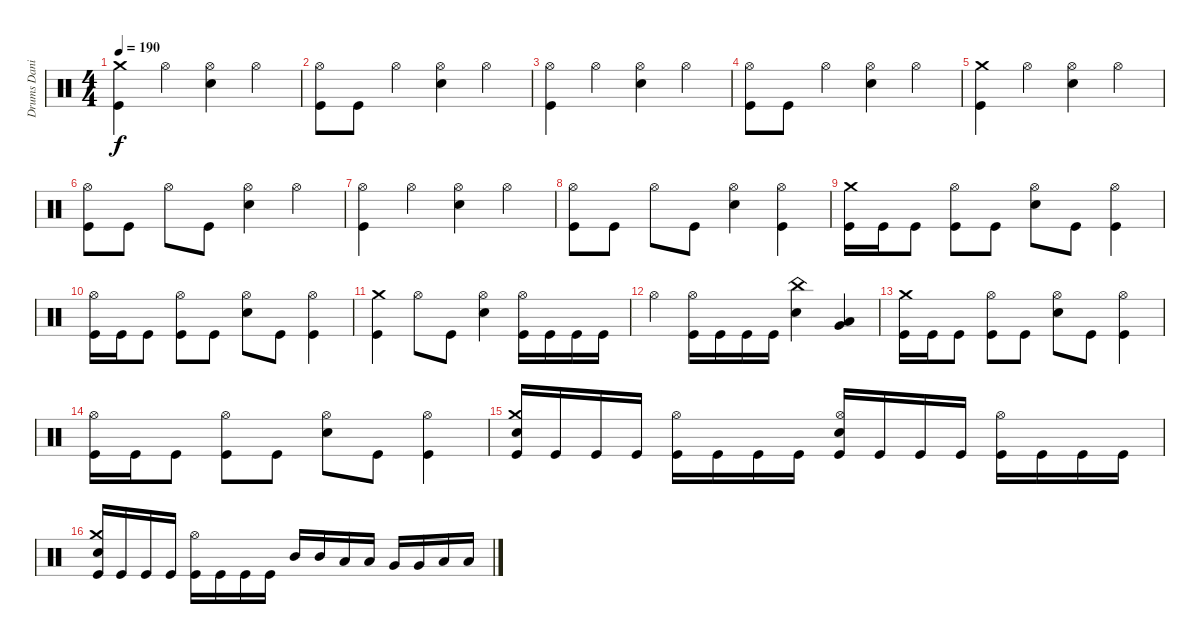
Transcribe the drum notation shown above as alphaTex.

\track ("Drums Daniel" "Drums Dani") {instrument percussion}
\staff {score}
\articulation defaults
\ts (4 4)
\tempo 190
\clef neutral
\ks c
("Kick (hit)" "Crash medium (hit)").4{dy f} "Hi-Hat (open)".4 ("Electric Snare (hit)" "Hi-Hat (open)").4 "Hi-Hat (open)".4 |
("Kick (hit)" "Hi-Hat (open)").8 "Kick (hit)".8 "Hi-Hat (open)".4 ("Electric Snare (hit)" "Hi-Hat (open)").4 "Hi-Hat (open)".4 |
("Kick (hit)" "Hi-Hat (open)").4 "Hi-Hat (open)".4 ("Electric Snare (hit)" "Hi-Hat (open)").4 "Hi-Hat (open)".4 |
("Kick (hit)" "Hi-Hat (open)").8 "Kick (hit)".8 "Hi-Hat (open)".4 ("Electric Snare (hit)" "Hi-Hat (open)").4 "Hi-Hat (open)".4 |
("Kick (hit)" "Crash medium (hit)").4 "Hi-Hat (open)".4 ("Electric Snare (hit)" "Hi-Hat (open)").4 "Hi-Hat (open)".4 |
("Kick (hit)" "Hi-Hat (open)").8 "Kick (hit)".8 "Hi-Hat (open)".8 "Kick (hit)".8 ("Electric Snare (hit)" "Hi-Hat (open)").4 "Hi-Hat (open)".4 |
("Kick (hit)" "Hi-Hat (open)").4 "Hi-Hat (open)".4 ("Electric Snare (hit)" "Hi-Hat (open)").4 "Hi-Hat (open)".4 |
("Kick (hit)" "Hi-Hat (open)").8 "Kick (hit)".8 "Hi-Hat (open)".8 "Kick (hit)".8 ("Electric Snare (hit)" "Hi-Hat (open)").4 ("Kick (hit)" "Hi-Hat (open)").4 |
("Kick (hit)" "Crash medium (hit)").16 "Kick (hit)".16 "Kick (hit)".8 ("Kick (hit)" "Hi-Hat (open)").8 "Kick (hit)".8 ("Electric Snare (hit)" "Hi-Hat (open)").8 "Kick (hit)".8 ("Kick (hit)" "Hi-Hat (open)").4 |
("Kick (hit)" "Hi-Hat (open)").16 "Kick (hit)".16 "Kick (hit)".8 ("Kick (hit)" "Hi-Hat (open)").8 "Kick (hit)".8 ("Electric Snare (hit)" "Hi-Hat (open)").8 "Kick (hit)".8 ("Kick (hit)" "Hi-Hat (open)").4 |
("Kick (hit)" "Crash medium (hit)").4 "Hi-Hat (open)".8 "Kick (hit)".8 ("Electric Snare (hit)" "Hi-Hat (open)").4 ("Kick (hit)" "Hi-Hat (open)").16 "Kick (hit)".16 "Kick (hit)".16 "Kick (hit)".16 |
"Hi-Hat (open)".4 ("Kick (hit)" "Hi-Hat (open)").16 "Kick (hit)".16 "Kick (hit)".16 "Kick (hit)".16 ("Electric Snare (hit)" "China (hit)").4 ("Very Low Tom (hit)" "Low Floor Tom (hit)").4 |
("Kick (hit)" "Crash medium (hit)").16 "Kick (hit)".16 "Kick (hit)".8 ("Kick (hit)" "Hi-Hat (open)").8 "Kick (hit)".8 ("Electric Snare (hit)" "Hi-Hat (open)").8 "Kick (hit)".8 ("Kick (hit)" "Hi-Hat (open)").4 |
("Kick (hit)" "Hi-Hat (open)").16 "Kick (hit)".16 "Kick (hit)".8 ("Kick (hit)" "Hi-Hat (open)").8 "Kick (hit)".8 ("Electric Snare (hit)" "Hi-Hat (open)").8 "Kick (hit)".8 ("Kick (hit)" "Hi-Hat (open)").4 |
("Kick (hit)" "Electric Snare (hit)" "Crash medium (hit)").16 "Kick (hit)".16 "Kick (hit)".16 "Kick (hit)".16 ("Kick (hit)" "Hi-Hat (open)").16 "Kick (hit)".16 "Kick (hit)".16 "Kick (hit)".16 ("Kick (hit)" "Electric Snare (hit)" "Hi-Hat (open)").16 "Kick (hit)".16 "Kick (hit)".16 "Kick (hit)".16 ("Kick (hit)" "Hi-Hat (open)").16 "Kick (hit)".16 "Kick (hit)".16 "Kick (hit)".16 |
("Kick (hit)" "Electric Snare (hit)" "Crash medium (hit)").16 "Kick (hit)".16 "Kick (hit)".16 "Kick (hit)".16 ("Kick (hit)" "Hi-Hat (open)").16 "Kick (hit)".16 "Kick (hit)".16 "Kick (hit)".16 "Mid Tom (hit)".16 "Mid Tom (hit)".16 "Low Tom (hit)".16 "Low Tom (hit)".16 "Very Low Tom (hit)".16 "Very Low Tom (hit)".16 "Low Floor Tom (hit)".16 "Low Floor Tom (hit)".16
